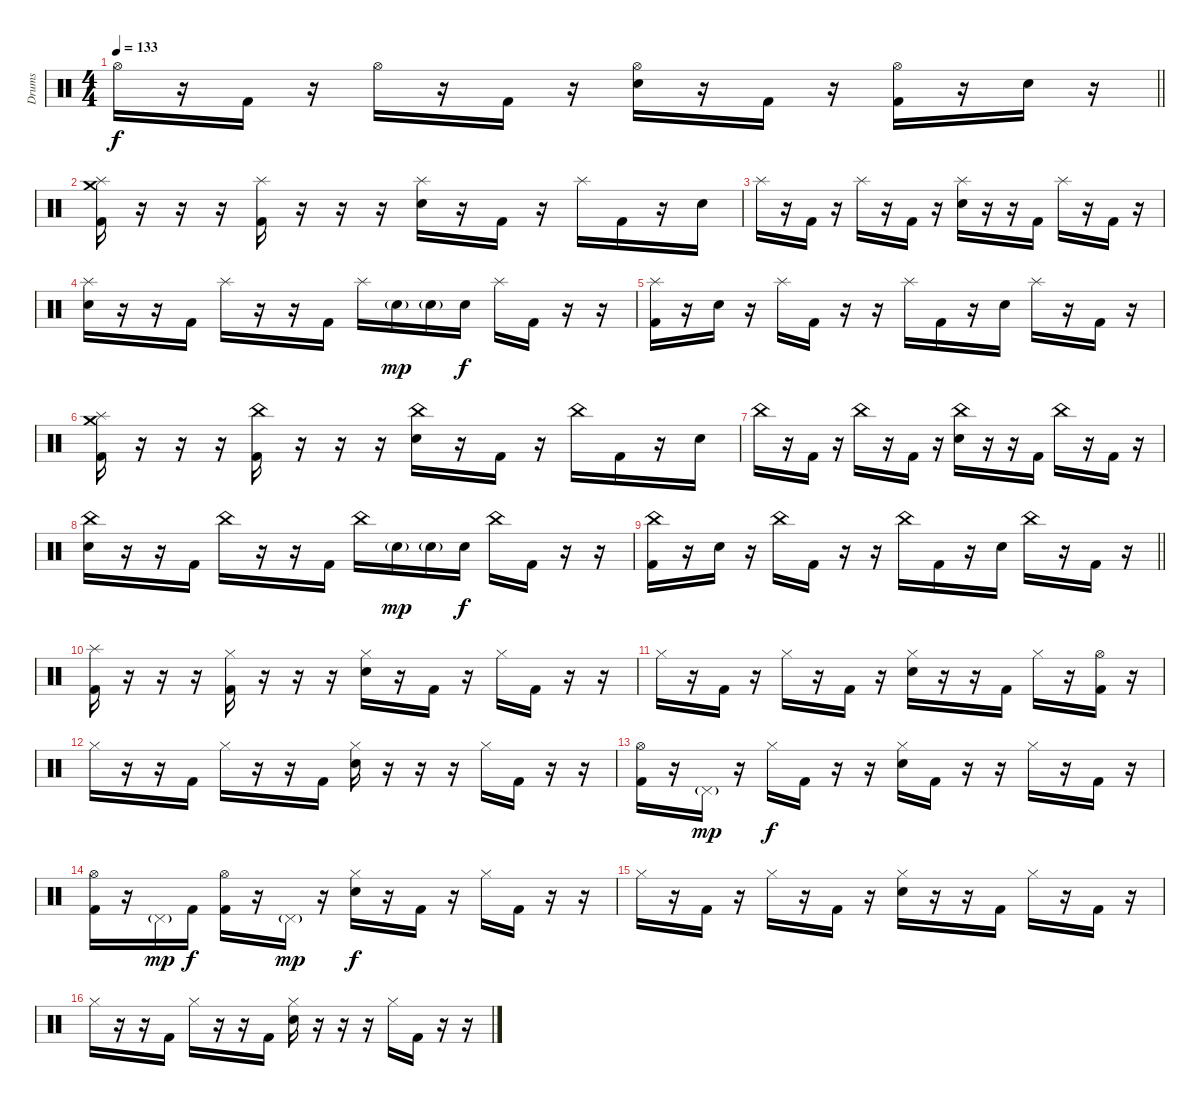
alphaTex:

\track ("Drums" "Drums") {instrument percussion}
\staff {score}
\articulation defaults
\ts (4 4)
\tempo 133
\clef neutral
\barLineRight lightlight
\ks c "Hi-Hat (open)".16{dy f}
r.16 "Kick (hit) 2".16 r.16 "Hi-Hat (open)".16 r.16 "Kick (hit) 2".16 r.16 ("Hi-Hat (open)" "Electric Snare (hit)").16 r.16 "Kick (hit) 2".16 r.16 ("Hi-Hat (open)" "Kick (hit) 2").16 r.16 "Electric Snare (hit)".16 r.16 |
\section ("" "")
("Crash medium (hit)" "Splash (hit)" "Kick (hit) 2").16 r.16 r.16 r.16 ("Splash (hit)" "Kick (hit) 2").16 r.16 r.16 r.16 ("Splash (hit)" "Electric Snare (hit)").16 r.16 "Kick (hit) 2".16 r.16 "Splash (hit)".16 "Kick (hit) 2".16 r.16 "Electric Snare (hit)".16 |
"Splash (hit)".16 r.16 "Kick (hit) 2".16 r.16 "Splash (hit)".16 r.16 "Kick (hit) 2".16 r.16 ("Splash (hit)" "Electric Snare (hit)").16 r.16 r.16 "Kick (hit) 2".16 "Splash (hit)".16 r.16 "Kick (hit) 2".16 r.16 |
("Splash (hit)" "Electric Snare (hit)").16 r.16 r.16 "Kick (hit) 2".16 "Splash (hit)".16 r.16 r.16 "Kick (hit) 2".16 "Splash (hit)".16 "Electric Snare (hit)"{g}.16{dy mp} "Electric Snare (hit)"{g}.16 "Electric Snare (hit)".16{dy f} "Splash (hit)".16 "Kick (hit) 2".16 r.16 r.16 |
("Splash (hit)" "Kick (hit) 2").16 r.16 "Electric Snare (hit)".16 r.16 "Splash (hit)".16 "Kick (hit) 2".16 r.16 r.16 "Splash (hit)".16 "Kick (hit) 2".16 r.16 "Electric Snare (hit)".16 "Splash (hit)".16 r.16 "Kick (hit) 2".16 r.16 |
("Crash medium (hit)" "Splash (hit)" "Kick (hit) 2").16 r.16 r.16 r.16 ("China (hit)" "Kick (hit) 2").16 r.16 r.16 r.16 ("China (hit)" "Electric Snare (hit)").16 r.16 "Kick (hit) 2".16 r.16 "China (hit)".16 "Kick (hit) 2".16 r.16 "Electric Snare (hit)".16 |
"China (hit)".16 r.16 "Kick (hit) 2".16 r.16 "China (hit)".16 r.16 "Kick (hit) 2".16 r.16 ("China (hit)" "Electric Snare (hit)").16 r.16 r.16 "Kick (hit) 2".16 "China (hit)".16 r.16 "Kick (hit) 2".16 r.16 |
("China (hit)" "Electric Snare (hit)").16 r.16 r.16 "Kick (hit) 2".16 "China (hit)".16 r.16 r.16 "Kick (hit) 2".16 "China (hit)".16 "Electric Snare (hit)"{g}.16{dy mp} "Electric Snare (hit)"{g}.16 "Electric Snare (hit)".16{dy f} "China (hit)".16 "Kick (hit) 2".16 r.16 r.16 |
\barLineRight lightlight
("China (hit)" "Kick (hit) 2").16 r.16 "Electric Snare (hit)".16 r.16 "China (hit)".16 "Kick (hit) 2".16 r.16 r.16 "China (hit)".16 "Kick (hit) 2".16 r.16 "Electric Snare (hit)".16 "China (hit)".16 r.16 "Kick (hit) 2".16 r.16 |
\section ("" "")
("Splash (hit)" "Kick (hit) 2").16 r.16 r.16 r.16 ("Hi-Hat (closed)" "Kick (hit) 2").16 r.16 r.16 r.16 ("Hi-Hat (closed)" "Electric Snare (hit)").16 r.16 "Kick (hit) 2".16 r.16 "Hi-Hat (closed)".16 "Kick (hit) 2".16 r.16 r.16 |
"Hi-Hat (closed)".16 r.16 "Kick (hit) 2".16 r.16 "Hi-Hat (closed)".16 r.16 "Kick (hit) 2".16 r.16 ("Hi-Hat (closed)" "Electric Snare (hit)").16 r.16 r.16 "Kick (hit) 2".16 "Hi-Hat (closed)".16 r.16 ("Hi-Hat (open)" "Kick (hit) 2").16 r.16 |
"Hi-Hat (closed)".16 r.16 r.16 "Kick (hit) 2".16 "Hi-Hat (closed)".16 r.16 r.16 "Kick (hit) 2".16 ("Hi-Hat (closed)" "Electric Snare (hit)").16 r.16 r.16 r.16 "Hi-Hat (closed)".16 "Kick (hit) 2".16 r.16 r.16 |
("Hi-Hat (open)" "Kick (hit) 2").16 r.16 "Pedal Hi-Hat (hit)"{g}.16{dy mp} r.16 "Hi-Hat (closed)".16{dy f} "Kick (hit) 2".16 r.16 r.16 ("Hi-Hat (closed)" "Electric Snare (hit)").16 "Kick (hit) 2".16 r.16 r.16 "Hi-Hat (closed)".16 r.16 "Kick (hit) 2".16 r.16 |
("Hi-Hat (open)" "Kick (hit) 2").16 r.16 "Pedal Hi-Hat (hit)"{g}.16{dy mp} "Kick (hit) 2".16{dy f} ("Hi-Hat (open)" "Kick (hit) 2").16 r.16 "Pedal Hi-Hat (hit)"{g}.16{dy mp} r.16 ("Hi-Hat (closed)" "Electric Snare (hit)").16{dy f} r.16 "Kick (hit) 2".16 r.16 "Hi-Hat (closed)".16 "Kick (hit) 2".16 r.16 r.16 |
"Hi-Hat (closed)".16 r.16 "Kick (hit) 2".16 r.16 "Hi-Hat (closed)".16 r.16 "Kick (hit) 2".16 r.16 ("Hi-Hat (closed)" "Electric Snare (hit)").16 r.16 r.16 "Kick (hit) 2".16 "Hi-Hat (closed)".16 r.16 "Kick (hit) 2".16 r.16 |
"Hi-Hat (closed)".16 r.16 r.16 "Kick (hit) 2".16 "Hi-Hat (closed)".16 r.16 r.16 "Kick (hit) 2".16 ("Hi-Hat (closed)" "Electric Snare (hit)").16 r.16 r.16 r.16 "Hi-Hat (closed)".16 "Kick (hit) 2".16 r.16 r.16
